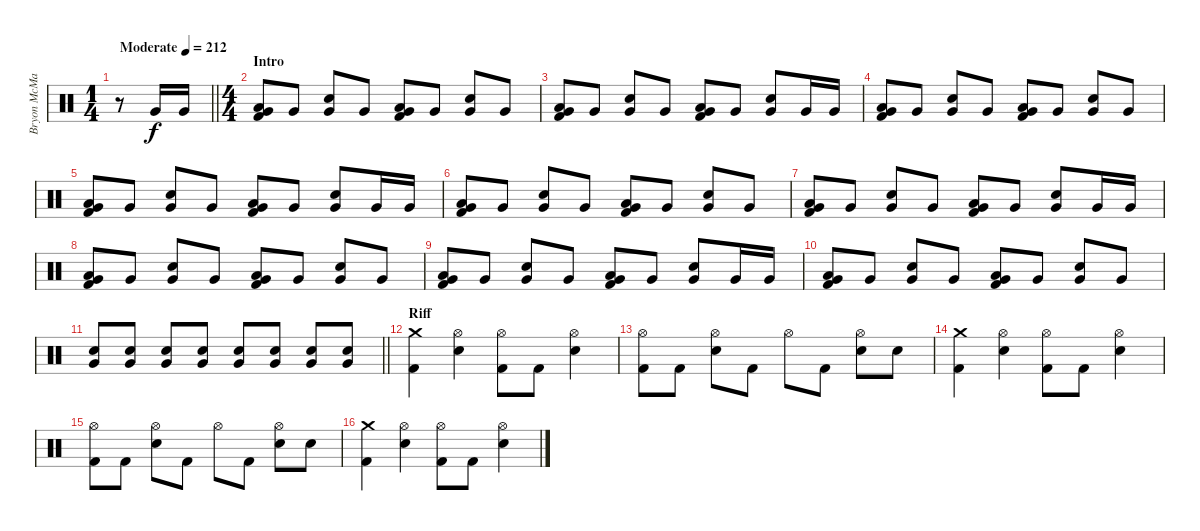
\track ("Bryon McMackin - Drums" "Bryon McMa") {instrument percussion}
\staff {score}
\articulation defaults
\ts (1 4)
\tempo (212 "Moderate")
\clef neutral
\barLineRight lightlight
\ks c
r.8{dy f} "Very Low Tom (hit)".16 "Very Low Tom (hit)".16 |
\ts (4 4)
\section ("" "Intro")
("Low Tom (hit)" "Very Low Tom (hit)" "Kick (hit) 2").8 "Very Low Tom (hit)".8 ("Electric Snare (hit)" "Very Low Tom (hit)").8 "Very Low Tom (hit)".8 ("Low Tom (hit)" "Very Low Tom (hit)" "Kick (hit) 2").8 "Very Low Tom (hit)".8 ("Electric Snare (hit)" "Very Low Tom (hit)").8 "Very Low Tom (hit)".8 |
("Low Tom (hit)" "Very Low Tom (hit)" "Kick (hit) 2").8 "Very Low Tom (hit)".8 ("Electric Snare (hit)" "Very Low Tom (hit)").8 "Very Low Tom (hit)".8 ("Low Tom (hit)" "Very Low Tom (hit)" "Kick (hit) 2").8 "Very Low Tom (hit)".8 ("Electric Snare (hit)" "Very Low Tom (hit)").8 "Very Low Tom (hit)".16 "Very Low Tom (hit)".16 |
("Low Tom (hit)" "Very Low Tom (hit)" "Kick (hit) 2").8 "Very Low Tom (hit)".8 ("Electric Snare (hit)" "Very Low Tom (hit)").8 "Very Low Tom (hit)".8 ("Low Tom (hit)" "Very Low Tom (hit)" "Kick (hit) 2").8 "Very Low Tom (hit)".8 ("Electric Snare (hit)" "Very Low Tom (hit)").8 "Very Low Tom (hit)".8 |
("Low Tom (hit)" "Very Low Tom (hit)" "Kick (hit) 2").8 "Very Low Tom (hit)".8 ("Electric Snare (hit)" "Very Low Tom (hit)").8 "Very Low Tom (hit)".8 ("Low Tom (hit)" "Very Low Tom (hit)" "Kick (hit) 2").8 "Very Low Tom (hit)".8 ("Electric Snare (hit)" "Very Low Tom (hit)").8 "Very Low Tom (hit)".16 "Very Low Tom (hit)".16 |
("Low Tom (hit)" "Very Low Tom (hit)" "Kick (hit) 2").8 "Very Low Tom (hit)".8 ("Electric Snare (hit)" "Very Low Tom (hit)").8 "Very Low Tom (hit)".8 ("Low Tom (hit)" "Very Low Tom (hit)" "Kick (hit) 2").8 "Very Low Tom (hit)".8 ("Electric Snare (hit)" "Very Low Tom (hit)").8 "Very Low Tom (hit)".8 |
("Low Tom (hit)" "Very Low Tom (hit)" "Kick (hit) 2").8 "Very Low Tom (hit)".8 ("Electric Snare (hit)" "Very Low Tom (hit)").8 "Very Low Tom (hit)".8 ("Low Tom (hit)" "Very Low Tom (hit)" "Kick (hit) 2").8 "Very Low Tom (hit)".8 ("Electric Snare (hit)" "Very Low Tom (hit)").8 "Very Low Tom (hit)".16 "Very Low Tom (hit)".16 |
("Low Tom (hit)" "Very Low Tom (hit)" "Kick (hit) 2").8 "Very Low Tom (hit)".8 ("Electric Snare (hit)" "Very Low Tom (hit)").8 "Very Low Tom (hit)".8 ("Low Tom (hit)" "Very Low Tom (hit)" "Kick (hit) 2").8 "Very Low Tom (hit)".8 ("Electric Snare (hit)" "Very Low Tom (hit)").8 "Very Low Tom (hit)".8 |
("Low Tom (hit)" "Very Low Tom (hit)" "Kick (hit) 2").8 "Very Low Tom (hit)".8 ("Electric Snare (hit)" "Very Low Tom (hit)").8 "Very Low Tom (hit)".8 ("Low Tom (hit)" "Very Low Tom (hit)" "Kick (hit) 2").8 "Very Low Tom (hit)".8 ("Electric Snare (hit)" "Very Low Tom (hit)").8 "Very Low Tom (hit)".16 "Very Low Tom (hit)".16 |
("Low Tom (hit)" "Very Low Tom (hit)" "Kick (hit) 2").8 "Very Low Tom (hit)".8 ("Electric Snare (hit)" "Very Low Tom (hit)").8 "Very Low Tom (hit)".8 ("Low Tom (hit)" "Very Low Tom (hit)" "Kick (hit) 2").8 "Very Low Tom (hit)".8 ("Electric Snare (hit)" "Very Low Tom (hit)").8 "Very Low Tom (hit)".8 |
\barLineRight lightlight
("Electric Snare (hit)" "Very Low Tom (hit)").8 ("Electric Snare (hit)" "Very Low Tom (hit)").8 ("Electric Snare (hit)" "Very Low Tom (hit)").8 ("Electric Snare (hit)" "Very Low Tom (hit)").8 ("Electric Snare (hit)" "Very Low Tom (hit)").8 ("Electric Snare (hit)" "Very Low Tom (hit)").8 ("Electric Snare (hit)" "Very Low Tom (hit)").8 ("Electric Snare (hit)" "Very Low Tom (hit)").8 |
\section ("" "Riff")
("Crash medium (hit)" "Kick (hit) 2").4 ("Hi-Hat (open)" "Electric Snare (hit)").4 ("Hi-Hat (open)" "Kick (hit) 2").8 "Kick (hit) 2".8 ("Hi-Hat (open)" "Electric Snare (hit)").4 |
("Hi-Hat (open)" "Kick (hit) 2").8 "Kick (hit) 2".8 ("Hi-Hat (open)" "Electric Snare (hit)").8 "Kick (hit) 2".8 "Hi-Hat (open)".8 "Kick (hit) 2".8 ("Hi-Hat (open)" "Electric Snare (hit)").8 "Electric Snare (hit)".8 |
("Crash medium (hit)" "Kick (hit) 2").4 ("Hi-Hat (open)" "Electric Snare (hit)").4 ("Hi-Hat (open)" "Kick (hit) 2").8 "Kick (hit) 2".8 ("Hi-Hat (open)" "Electric Snare (hit)").4 |
("Hi-Hat (open)" "Kick (hit) 2").8 "Kick (hit) 2".8 ("Hi-Hat (open)" "Electric Snare (hit)").8 "Kick (hit) 2".8 "Hi-Hat (open)".8 "Kick (hit) 2".8 ("Hi-Hat (open)" "Electric Snare (hit)").8 "Electric Snare (hit)".8 |
("Crash medium (hit)" "Kick (hit) 2").4 ("Hi-Hat (open)" "Electric Snare (hit)").4 ("Hi-Hat (open)" "Kick (hit) 2").8 "Kick (hit) 2".8 ("Hi-Hat (open)" "Electric Snare (hit)").4
